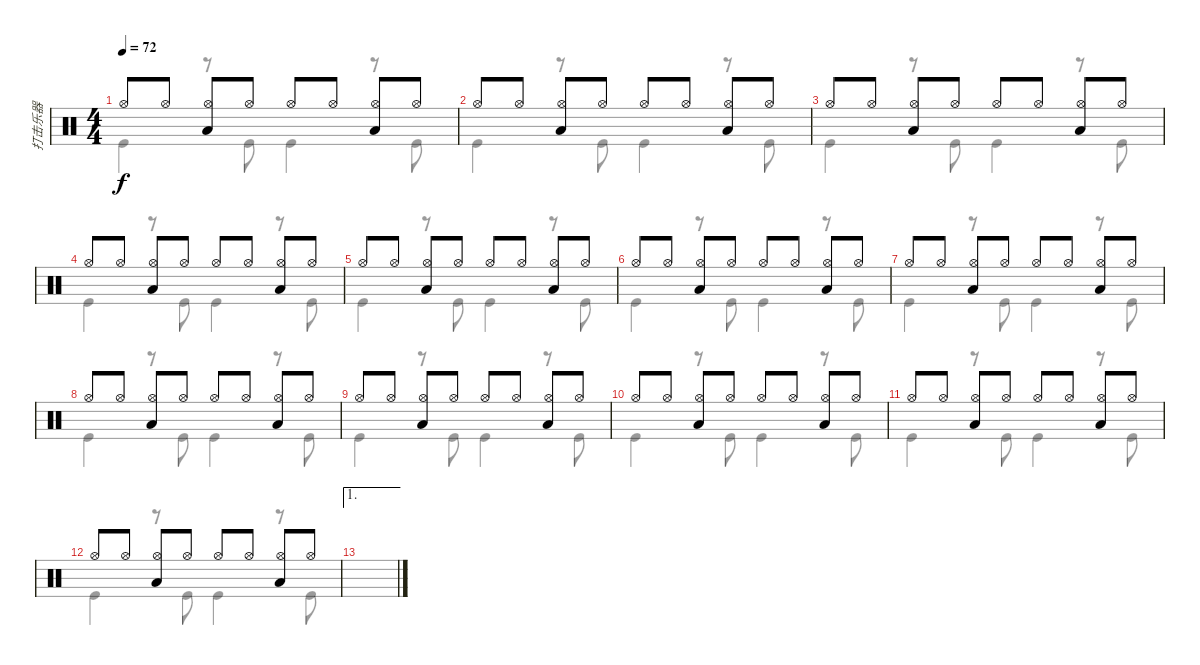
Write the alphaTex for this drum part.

\track ("打击乐器" "打击乐器") {instrument percussion}
\staff {score}
\articulation defaults
\voice
\ts (4 4)
\tempo 72
\clef neutral
\ks c "Hi-Hat (open)".8{dy f} "Hi-Hat (open)".8
("Hi-Hat (open)" "Low Tom (hit)").8 "Hi-Hat (open)".8 "Hi-Hat (open)".8 "Hi-Hat (open)".8 ("Hi-Hat (open)" "Low Tom (hit)").8 "Hi-Hat (open)".8 |
"Hi-Hat (open)".8 "Hi-Hat (open)".8 ("Hi-Hat (open)" "Low Tom (hit)").8 "Hi-Hat (open)".8 "Hi-Hat (open)".8 "Hi-Hat (open)".8 ("Hi-Hat (open)" "Low Tom (hit)").8 "Hi-Hat (open)".8 |
"Hi-Hat (open)".8 "Hi-Hat (open)".8 ("Hi-Hat (open)" "Low Tom (hit)").8 "Hi-Hat (open)".8 "Hi-Hat (open)".8 "Hi-Hat (open)".8 ("Hi-Hat (open)" "Low Tom (hit)").8 "Hi-Hat (open)".8 |
"Hi-Hat (open)".8 "Hi-Hat (open)".8 ("Hi-Hat (open)" "Low Tom (hit)").8 "Hi-Hat (open)".8 "Hi-Hat (open)".8 "Hi-Hat (open)".8 ("Hi-Hat (open)" "Low Tom (hit)").8 "Hi-Hat (open)".8 |
"Hi-Hat (open)".8 "Hi-Hat (open)".8 ("Hi-Hat (open)" "Low Tom (hit)").8 "Hi-Hat (open)".8 "Hi-Hat (open)".8 "Hi-Hat (open)".8 ("Hi-Hat (open)" "Low Tom (hit)").8 "Hi-Hat (open)".8 |
"Hi-Hat (open)".8 "Hi-Hat (open)".8 ("Hi-Hat (open)" "Low Tom (hit)").8 "Hi-Hat (open)".8 "Hi-Hat (open)".8 "Hi-Hat (open)".8 ("Hi-Hat (open)" "Low Tom (hit)").8 "Hi-Hat (open)".8 |
"Hi-Hat (open)".8 "Hi-Hat (open)".8 ("Hi-Hat (open)" "Low Tom (hit)").8 "Hi-Hat (open)".8 "Hi-Hat (open)".8 "Hi-Hat (open)".8 ("Hi-Hat (open)" "Low Tom (hit)").8 "Hi-Hat (open)".8 |
"Hi-Hat (open)".8 "Hi-Hat (open)".8 ("Hi-Hat (open)" "Low Tom (hit)").8 "Hi-Hat (open)".8 "Hi-Hat (open)".8 "Hi-Hat (open)".8 ("Hi-Hat (open)" "Low Tom (hit)").8 "Hi-Hat (open)".8 |
"Hi-Hat (open)".8 "Hi-Hat (open)".8 ("Hi-Hat (open)" "Low Tom (hit)").8 "Hi-Hat (open)".8 "Hi-Hat (open)".8 "Hi-Hat (open)".8 ("Hi-Hat (open)" "Low Tom (hit)").8 "Hi-Hat (open)".8 |
"Hi-Hat (open)".8 "Hi-Hat (open)".8 ("Hi-Hat (open)" "Low Tom (hit)").8 "Hi-Hat (open)".8 "Hi-Hat (open)".8 "Hi-Hat (open)".8 ("Hi-Hat (open)" "Low Tom (hit)").8 "Hi-Hat (open)".8 |
"Hi-Hat (open)".8 "Hi-Hat (open)".8 ("Hi-Hat (open)" "Low Tom (hit)").8 "Hi-Hat (open)".8 "Hi-Hat (open)".8 "Hi-Hat (open)".8 ("Hi-Hat (open)" "Low Tom (hit)").8 "Hi-Hat (open)".8 |
"Hi-Hat (open)".8 "Hi-Hat (open)".8 ("Hi-Hat (open)" "Low Tom (hit)").8 "Hi-Hat (open)".8 "Hi-Hat (open)".8 "Hi-Hat (open)".8 ("Hi-Hat (open)" "Low Tom (hit)").8 "Hi-Hat (open)".8 |
\ae 1
|
|
|
\voice
\clef neutral
\ottava regular
\simile none
\ks c "Kick (hit)".4{dy f}
r.8 "Kick (hit)".8 "Kick (hit)".4 r.8 "Kick (hit)".8 |
"Kick (hit)".4 r.8 "Kick (hit)".8 "Kick (hit)".4 r.8 "Kick (hit)".8 |
"Kick (hit)".4 r.8 "Kick (hit)".8 "Kick (hit)".4 r.8 "Kick (hit)".8 |
"Kick (hit)".4 r.8 "Kick (hit)".8 "Kick (hit)".4 r.8 "Kick (hit)".8 |
"Kick (hit)".4 r.8 "Kick (hit)".8 "Kick (hit)".4 r.8 "Kick (hit)".8 |
"Kick (hit)".4 r.8 "Kick (hit)".8 "Kick (hit)".4 r.8 "Kick (hit)".8 |
"Kick (hit)".4 r.8 "Kick (hit)".8 "Kick (hit)".4 r.8 "Kick (hit)".8 |
"Kick (hit)".4 r.8 "Kick (hit)".8 "Kick (hit)".4 r.8 "Kick (hit)".8 |
"Kick (hit)".4 r.8 "Kick (hit)".8 "Kick (hit)".4 r.8 "Kick (hit)".8 |
"Kick (hit)".4 r.8 "Kick (hit)".8 "Kick (hit)".4 r.8 "Kick (hit)".8 |
"Kick (hit)".4 r.8 "Kick (hit)".8 "Kick (hit)".4 r.8 "Kick (hit)".8 |
"Kick (hit)".4 r.8 "Kick (hit)".8 "Kick (hit)".4 r.8 "Kick (hit)".8 |
|
|
|
